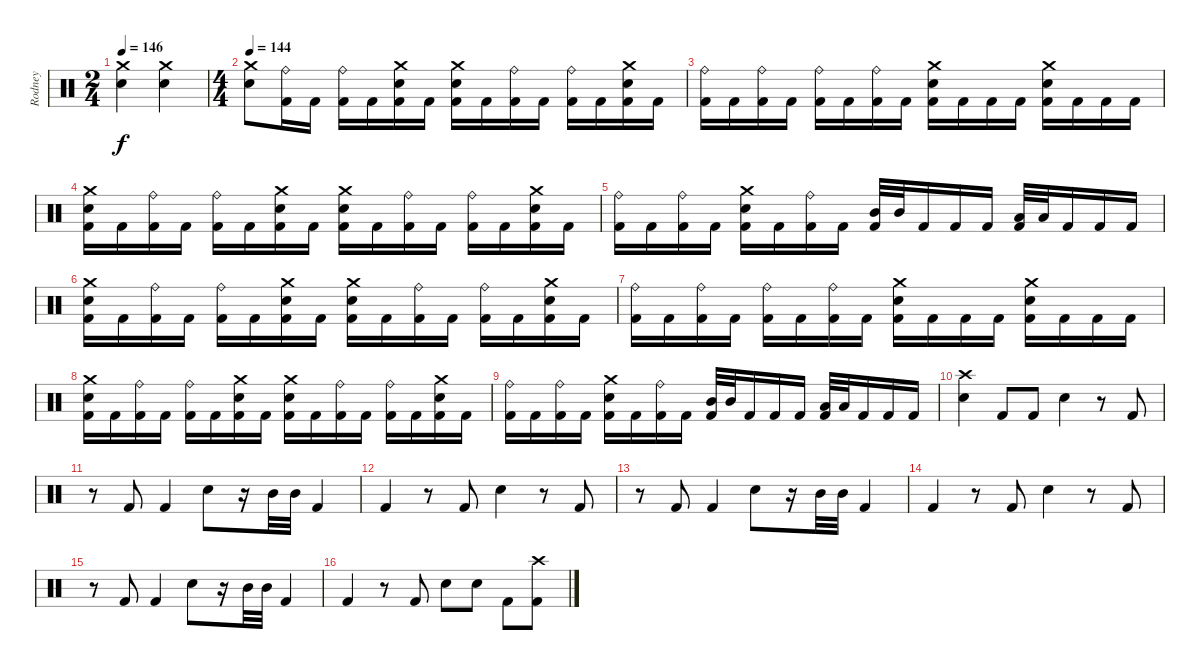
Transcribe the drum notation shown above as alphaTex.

\track ("Rodney" "Rodney") {instrument percussion}
\staff {score}
\articulation defaults
\ts (2 4)
\tempo 146
\clef neutral
\ks c
("Crash medium (hit)" "Snare (hit) 2").4{dy f} ("Crash medium (hit)" "Snare (hit) 2").4 |
\ts (4 4)
\tempo 144
("Crash medium (hit)" "Snare (hit) 2").8 ("Ride (bell)" "Kick (hit) 2").16 "Kick (hit) 2".16 ("Ride (bell)" "Kick (hit) 2").16 "Kick (hit) 2".16 ("Crash medium (hit)" "Snare (hit) 2" "Kick (hit) 2").16 "Kick (hit) 2".16 ("Crash medium (hit)" "Snare (hit) 2" "Kick (hit) 2").16 "Kick (hit) 2".16 ("Ride (bell)" "Kick (hit) 2").16 "Kick (hit) 2".16 ("Ride (bell)" "Kick (hit) 2").16 "Kick (hit) 2".16 ("Crash medium (hit)" "Snare (hit) 2" "Kick (hit) 2").16 "Kick (hit) 2".16 |
("Ride (bell)" "Kick (hit) 2").16 "Kick (hit) 2".16 ("Ride (bell)" "Kick (hit) 2").16 "Kick (hit) 2".16 ("Ride (bell)" "Kick (hit) 2").16 "Kick (hit) 2".16 ("Ride (bell)" "Kick (hit) 2").16 "Kick (hit) 2".16 ("Crash medium (hit)" "Snare (hit) 2" "Kick (hit) 2").16 "Kick (hit) 2".16 "Kick (hit) 2".16 "Kick (hit) 2".16 ("Crash medium (hit)" "Snare (hit) 2" "Kick (hit) 2").16 "Kick (hit) 2".16 "Kick (hit) 2".16 "Kick (hit) 2".16 |
("Crash medium (hit)" "Snare (hit) 2" "Kick (hit) 2").16 "Kick (hit) 2".16 ("Ride (bell)" "Kick (hit) 2").16 "Kick (hit) 2".16 ("Ride (bell)" "Kick (hit) 2").16 "Kick (hit) 2".16 ("Crash medium (hit)" "Snare (hit) 2" "Kick (hit) 2").16 "Kick (hit) 2".16 ("Crash medium (hit)" "Snare (hit) 2" "Kick (hit) 2").16 "Kick (hit) 2".16 ("Ride (bell)" "Kick (hit) 2").16 "Kick (hit) 2".16 ("Ride (bell)" "Kick (hit) 2").16 "Kick (hit) 2".16 ("Crash medium (hit)" "Snare (hit) 2" "Kick (hit) 2").16 "Kick (hit) 2".16 |
("Ride (bell)" "Kick (hit) 2").16 "Kick (hit) 2".16 ("Ride (bell)" "Kick (hit) 2").16 "Kick (hit) 2".16 ("Crash medium (hit)" "Snare (hit) 2" "Kick (hit) 2").16 "Kick (hit) 2".16 ("Ride (bell)" "Kick (hit) 2").16 "Kick (hit) 2".16 ("Mid Tom (hit)" "Kick (hit) 2").32 "Mid Tom (hit)".32 "Kick (hit) 2".16 "Kick (hit) 2".16 "Kick (hit) 2".16 ("Low Tom (hit)" "Kick (hit) 2").32 "Low Tom (hit)".32 "Kick (hit) 2".16 "Kick (hit) 2".16 "Kick (hit) 2".16 |
("Crash medium (hit)" "Snare (hit) 2" "Kick (hit) 2").16 "Kick (hit) 2".16 ("Ride (bell)" "Kick (hit) 2").16 "Kick (hit) 2".16 ("Ride (bell)" "Kick (hit) 2").16 "Kick (hit) 2".16 ("Crash medium (hit)" "Snare (hit) 2" "Kick (hit) 2").16 "Kick (hit) 2".16 ("Crash medium (hit)" "Snare (hit) 2" "Kick (hit) 2").16 "Kick (hit) 2".16 ("Ride (bell)" "Kick (hit) 2").16 "Kick (hit) 2".16 ("Ride (bell)" "Kick (hit) 2").16 "Kick (hit) 2".16 ("Crash medium (hit)" "Snare (hit) 2" "Kick (hit) 2").16 "Kick (hit) 2".16 |
("Ride (bell)" "Kick (hit) 2").16 "Kick (hit) 2".16 ("Ride (bell)" "Kick (hit) 2").16 "Kick (hit) 2".16 ("Ride (bell)" "Kick (hit) 2").16 "Kick (hit) 2".16 ("Ride (bell)" "Kick (hit) 2").16 "Kick (hit) 2".16 ("Crash medium (hit)" "Snare (hit) 2" "Kick (hit) 2").16 "Kick (hit) 2".16 "Kick (hit) 2".16 "Kick (hit) 2".16 ("Crash medium (hit)" "Snare (hit) 2" "Kick (hit) 2").16 "Kick (hit) 2".16 "Kick (hit) 2".16 "Kick (hit) 2".16 |
("Crash medium (hit)" "Snare (hit) 2" "Kick (hit) 2").16 "Kick (hit) 2".16 ("Ride (bell)" "Kick (hit) 2").16 "Kick (hit) 2".16 ("Ride (bell)" "Kick (hit) 2").16 "Kick (hit) 2".16 ("Crash medium (hit)" "Snare (hit) 2" "Kick (hit) 2").16 "Kick (hit) 2".16 ("Crash medium (hit)" "Snare (hit) 2" "Kick (hit) 2").16 "Kick (hit) 2".16 ("Ride (bell)" "Kick (hit) 2").16 "Kick (hit) 2".16 ("Ride (bell)" "Kick (hit) 2").16 "Kick (hit) 2".16 ("Crash medium (hit)" "Snare (hit) 2" "Kick (hit) 2").16 "Kick (hit) 2".16 |
("Ride (bell)" "Kick (hit) 2").16 "Kick (hit) 2".16 ("Ride (bell)" "Kick (hit) 2").16 "Kick (hit) 2".16 ("Crash medium (hit)" "Snare (hit) 2" "Kick (hit) 2").16 "Kick (hit) 2".16 ("Ride (bell)" "Kick (hit) 2").16 "Kick (hit) 2".16 ("Mid Tom (hit)" "Kick (hit) 2").32 "Mid Tom (hit)".32 "Kick (hit) 2".16 "Kick (hit) 2".16 "Kick (hit) 2".16 ("Low Tom (hit)" "Kick (hit) 2").32 "Low Tom (hit)".32 "Kick (hit) 2".16 "Kick (hit) 2".16 "Kick (hit) 2".16 |
("Crash high (hit)" "Snare (hit) 2").4 "Kick (hit) 2".8 "Kick (hit) 2".8 "Snare (hit) 2".4 r.8 "Kick (hit) 2".8 |
r.8 "Kick (hit) 2".8 "Kick (hit) 2".4 "Snare (hit) 2".8 r.16 "Mid Tom (hit)".32 "Mid Tom (hit)".32 "Kick (hit) 2".4 |
"Kick (hit) 2".4 r.8 "Kick (hit) 2".8 "Snare (hit) 2".4 r.8 "Kick (hit) 2".8 |
r.8 "Kick (hit) 2".8 "Kick (hit) 2".4 "Snare (hit) 2".8 r.16 "Mid Tom (hit)".32 "Mid Tom (hit)".32 "Kick (hit) 2".4 |
"Kick (hit) 2".4 r.8 "Kick (hit) 2".8 "Snare (hit) 2".4 r.8 "Kick (hit) 2".8 |
r.8 "Kick (hit) 2".8 "Kick (hit) 2".4 "Snare (hit) 2".8 r.16 "Mid Tom (hit)".32 "Mid Tom (hit)".32 "Kick (hit) 2".4 |
"Kick (hit) 2".4 r.8 "Kick (hit) 2".8 "Snare (hit) 2".8 "Snare (hit) 2".8 "Kick (hit) 2".8 ("Crash high (hit)" "Kick (hit) 2").8
